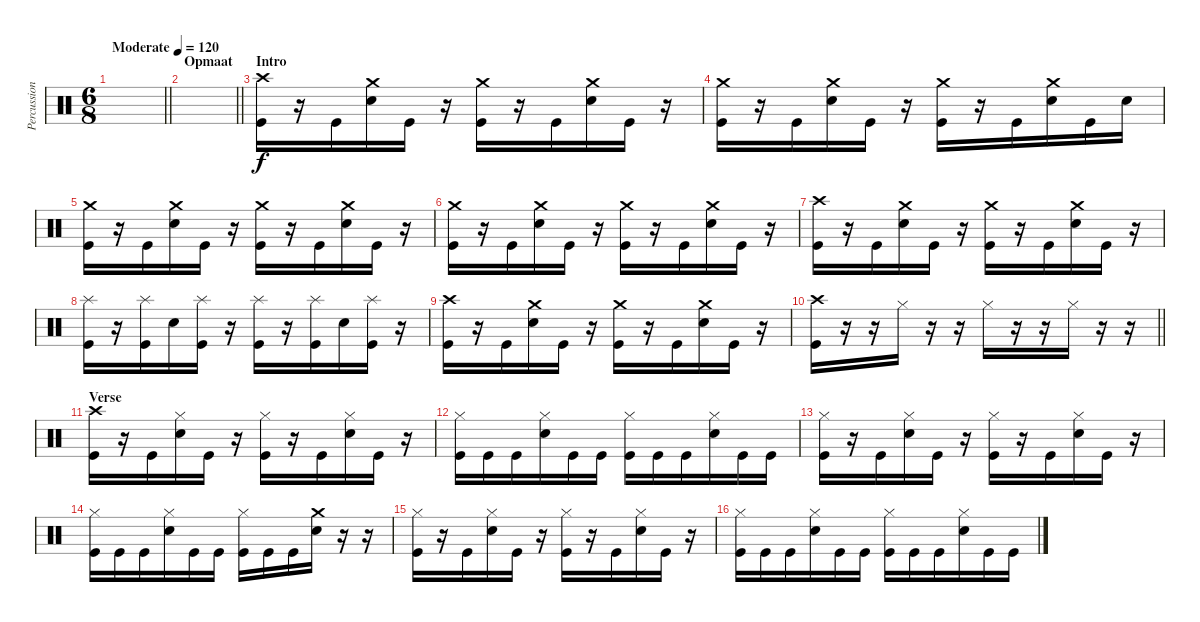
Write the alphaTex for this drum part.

\track ("Percussion" "Percussion") {instrument percussion}
\staff {score}
\articulation defaults
\ts (6 8)
\tempo (120 "Moderate")
\clef neutral
\barLineRight lightlight
\ks c
|
\section ("" "Opmaat")
\barLineRight lightlight
|
\section ("" "Intro")
("Crash high (hit)" "Kick (hit)").16 r.16 "Kick (hit)".16 ("Crash medium (hit)" "Snare (hit) 2").16 "Kick (hit)".16 r.16 ("Crash medium (hit)" "Kick (hit)").16 r.16 "Kick (hit)".16 ("Crash medium (hit)" "Snare (hit) 2").16 "Kick (hit)".16 r.16 |
("Crash medium (hit)" "Kick (hit)").16 r.16 "Kick (hit)".16 ("Crash medium (hit)" "Snare (hit) 2").16 "Kick (hit)".16 r.16 ("Crash medium (hit)" "Kick (hit)").16 r.16 "Kick (hit)".16 ("Crash medium (hit)" "Snare (hit) 2").16 "Kick (hit)".16 "Snare (hit) 2".16 |
("Crash medium (hit)" "Kick (hit)").16 r.16 "Kick (hit)".16 ("Crash medium (hit)" "Snare (hit) 2").16 "Kick (hit)".16 r.16 ("Crash medium (hit)" "Kick (hit)").16 r.16 "Kick (hit)".16 ("Crash medium (hit)" "Snare (hit) 2").16 "Kick (hit)".16 r.16 |
("Crash medium (hit)" "Kick (hit)").16 r.16 "Kick (hit)".16 ("Crash medium (hit)" "Snare (hit) 2").16 "Kick (hit)".16 r.16 ("Crash medium (hit)" "Kick (hit)").16 r.16 "Kick (hit)".16 ("Crash medium (hit)" "Snare (hit) 2").16 "Kick (hit)".16 r.16 |
("Crash high (hit)" "Kick (hit)").16 r.16 "Kick (hit)".16 ("Crash medium (hit)" "Snare (hit) 2").16 "Kick (hit)".16 r.16 ("Crash medium (hit)" "Kick (hit)").16 r.16 "Kick (hit)".16 ("Crash medium (hit)" "Snare (hit) 2").16 "Kick (hit)".16 r.16 |
("Splash (hit)" "Kick (hit)").16 r.16 ("Splash (hit)" "Kick (hit)").16 "Snare (hit) 2".16 ("Splash (hit)" "Kick (hit)").16 r.16 ("Splash (hit)" "Kick (hit)").16 r.16 ("Splash (hit)" "Kick (hit)").16 "Snare (hit) 2".16 ("Splash (hit)" "Kick (hit)").16 r.16 |
("Crash high (hit)" "Kick (hit)").16 r.16 "Kick (hit)".16 ("Crash medium (hit)" "Snare (hit) 2").16 "Kick (hit)".16 r.16 ("Crash medium (hit)" "Kick (hit)").16 r.16 "Kick (hit)".16 ("Crash medium (hit)" "Snare (hit) 2").16 "Kick (hit)".16 r.16 |
\barLineRight lightlight
("Crash high (hit)" "Kick (hit)").16 r.16 r.16 "Hi-Hat (closed)".16 r.16 r.16 "Hi-Hat (closed)".16 r.16 r.16 "Hi-Hat (closed)".16 r.16 r.16 |
\section ("" "Verse")
("Crash high (hit)" "Kick (hit)").16 r.16 "Kick (hit)".16 ("Hi-Hat (closed)" "Snare (hit) 2").16 "Kick (hit)".16 r.16 ("Hi-Hat (closed)" "Kick (hit)").16 r.16 "Kick (hit)".16 ("Hi-Hat (closed)" "Snare (hit) 2").16 "Kick (hit)".16 r.16 |
("Hi-Hat (closed)" "Kick (hit)").16 "Kick (hit)".16 "Kick (hit)".16 ("Hi-Hat (closed)" "Snare (hit) 2").16 "Kick (hit)".16 "Kick (hit)".16 ("Hi-Hat (closed)" "Kick (hit)").16 "Kick (hit)".16 "Kick (hit)".16 ("Hi-Hat (closed)" "Snare (hit) 2").16 "Kick (hit)".16 "Kick (hit)".16 |
("Hi-Hat (closed)" "Kick (hit)").16 r.16 "Kick (hit)".16 ("Hi-Hat (closed)" "Snare (hit) 2").16 "Kick (hit)".16 r.16 ("Hi-Hat (closed)" "Kick (hit)").16 r.16 "Kick (hit)".16 ("Hi-Hat (closed)" "Snare (hit) 2").16 "Kick (hit)".16 r.16 |
("Hi-Hat (closed)" "Kick (hit)").16 "Kick (hit)".16 "Kick (hit)".16 ("Hi-Hat (closed)" "Snare (hit) 2").16 "Kick (hit)".16 "Kick (hit)".16 ("Hi-Hat (closed)" "Kick (hit)").16 "Kick (hit)".16 "Kick (hit)".16 ("Crash medium (hit)" "Snare (hit) 2").16 r.16 r.16 |
("Hi-Hat (closed)" "Kick (hit)").16 r.16 "Kick (hit)".16 ("Hi-Hat (closed)" "Snare (hit) 2").16 "Kick (hit)".16 r.16 ("Hi-Hat (closed)" "Kick (hit)").16 r.16 "Kick (hit)".16 ("Hi-Hat (closed)" "Snare (hit) 2").16 "Kick (hit)".16 r.16 |
("Hi-Hat (closed)" "Kick (hit)").16 "Kick (hit)".16 "Kick (hit)".16 ("Hi-Hat (closed)" "Snare (hit) 2").16 "Kick (hit)".16 "Kick (hit)".16 ("Hi-Hat (closed)" "Kick (hit)").16 "Kick (hit)".16 "Kick (hit)".16 ("Hi-Hat (closed)" "Snare (hit) 2").16 "Kick (hit)".16 "Kick (hit)".16
